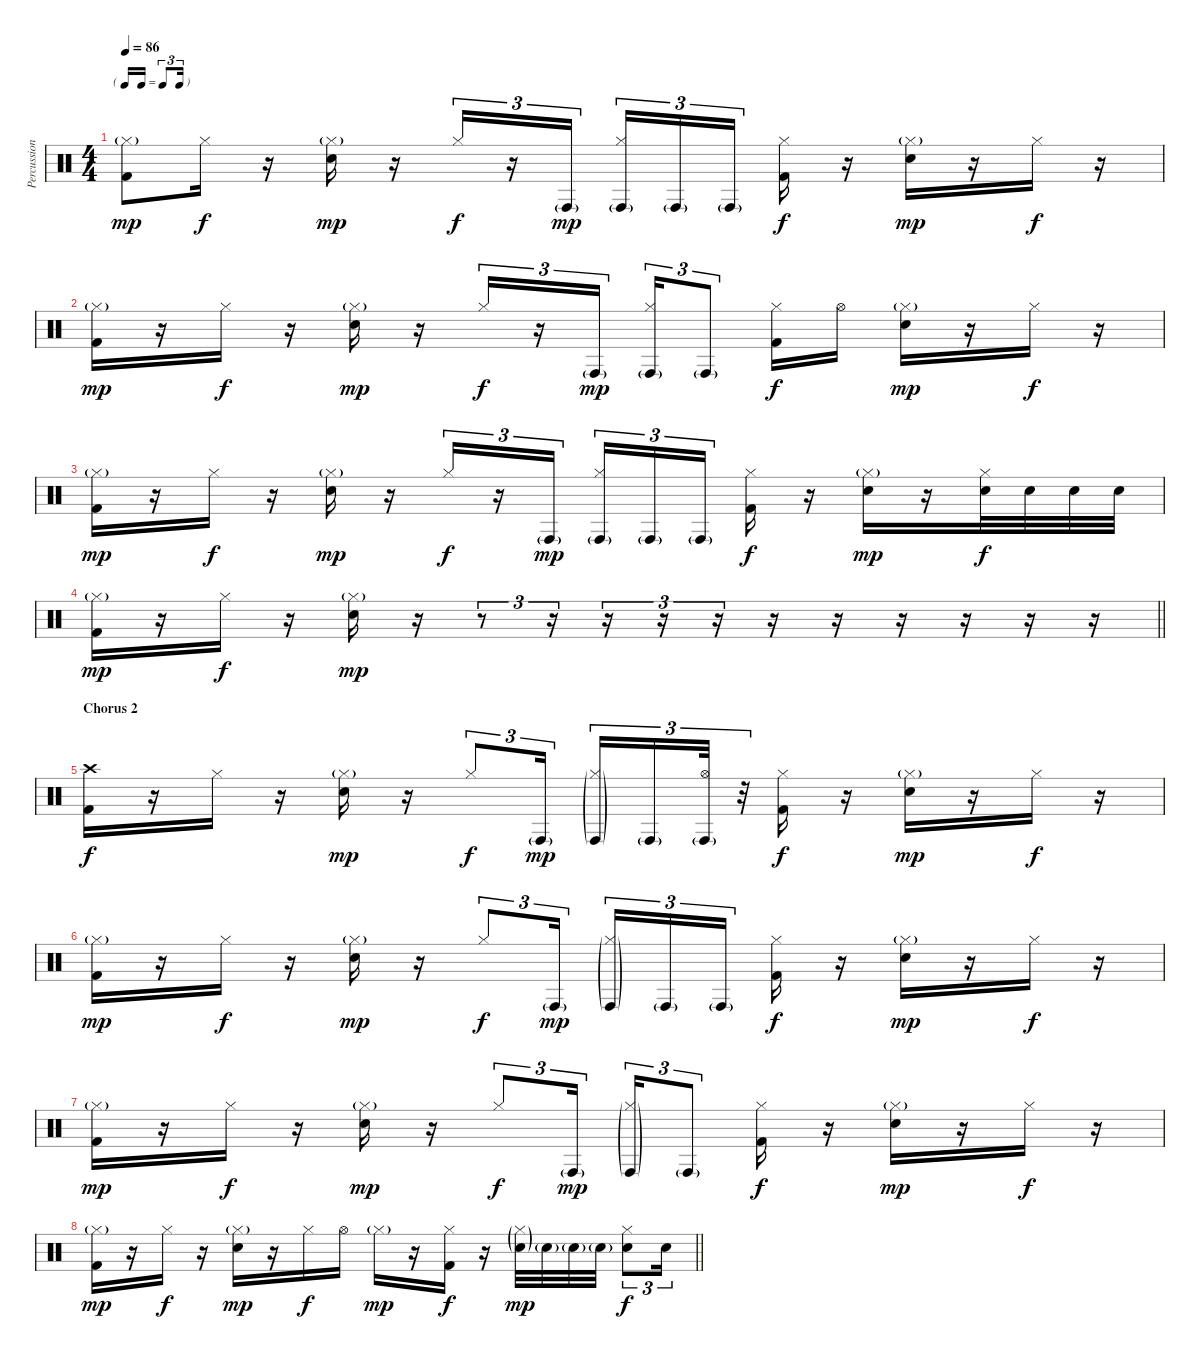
\track ("Percussion" "Percussion") {instrument percussion}
\staff {score}
\articulation defaults
\ts (4 4)
\tf triplet16th
\tempo 86
\clef neutral
\ks c
("Hi-Hat (closed)"{g} "Kick (hit) 2").8{dy mp} "Hi-Hat (closed)".16{dy f} r.16 ("Hi-Hat (closed)"{g} "Electric Snare (hit)").16{dy mp} r.16 "Hi-Hat (closed)".16{tu (3 2) dy f} r.16{tu (3 2)} "Conga high (hit)"{g}.16{tu (3 2) dy mp} ("Conga high (hit)"{g} "Hi-Hat (closed)").16{tu (3 2)} "Conga high (hit)"{g}.16{tu (3 2)} "Conga high (hit)"{g}.16{tu (3 2) beam splitsecondary} ("Hi-Hat (closed)" "Kick (hit) 2").16{dy f} r.16 ("Hi-Hat (closed)"{g} "Electric Snare (hit)").16{dy mp} r.16 "Hi-Hat (closed)".16{dy f} r.16 |
("Hi-Hat (closed)"{g} "Kick (hit) 2").16{dy mp} r.16 "Hi-Hat (closed)".16{dy f} r.16 ("Hi-Hat (closed)"{g} "Electric Snare (hit)").16{dy mp} r.16 "Hi-Hat (closed)".16{tu (3 2) dy f} r.16{tu (3 2)} "Conga high (hit)"{g}.16{tu (3 2) dy mp} ("Conga high (hit)"{g} "Hi-Hat (closed)").16{tu (3 2)} "Conga high (hit)"{g}.8{tu (3 2)} ("Hi-Hat (closed)" "Kick (hit) 2").16{dy f} "Hi-Hat (open)".16 ("Hi-Hat (closed)"{g} "Electric Snare (hit)").16{dy mp} r.16 "Hi-Hat (closed)".16{dy f} r.16 |
("Hi-Hat (closed)"{g} "Kick (hit) 2").16{dy mp} r.16 "Hi-Hat (closed)".16{dy f} r.16 ("Hi-Hat (closed)"{g} "Electric Snare (hit)").16{dy mp} r.16 "Hi-Hat (closed)".16{tu (3 2) dy f} r.16{tu (3 2)} "Conga high (hit)"{g}.16{tu (3 2) dy mp} ("Conga high (hit)"{g} "Hi-Hat (closed)").16{tu (3 2)} "Conga high (hit)"{g}.16{tu (3 2)} "Conga high (hit)"{g}.16{tu (3 2) beam splitsecondary} ("Hi-Hat (closed)" "Kick (hit) 2").16{dy f} r.16 ("Hi-Hat (closed)"{g} "Electric Snare (hit)").16{dy mp} r.16 ("Hi-Hat (closed)" "Electric Snare (hit)").32{dy f} "Electric Snare (hit)".32 "Electric Snare (hit)".32 "Electric Snare (hit)".32 |
\barLineRight lightlight
("Hi-Hat (closed)"{g} "Kick (hit) 2").16{dy mp} r.16 "Hi-Hat (closed)".16{dy f} r.16 ("Hi-Hat (closed)"{g} "Electric Snare (hit)").16{dy mp} r.16 r.8{tu (3 2)} r.16{tu (3 2)} r.16{tu (3 2)} r.16{tu (3 2)} r.16{tu (3 2)} r.16 r.16 r.16 r.16 r.16 r.16 |
\section ("" "Chorus 2")
("Crash high (hit)" "Kick (hit) 2").16{dy f} r.16 "Hi-Hat (closed)".16 r.16 ("Hi-Hat (closed)"{g} "Electric Snare (hit)").16{dy mp} r.16 "Hi-Hat (closed)".8{tu (3 2) dy f} "Conga high (hit)"{g}.16{tu (3 2) dy mp} ("Conga high (hit)"{g} "Hi-Hat (closed)"{g}).16{tu (3 2)} "Conga high (hit)"{g}.16{tu (3 2)} ("Conga high (hit)"{g} "Hi-Hat (open)").32{tu (3 2)} r.32{tu (3 2)} ("Hi-Hat (closed)" "Kick (hit) 2").16{dy f} r.16 ("Hi-Hat (closed)"{g} "Electric Snare (hit)").16{dy mp} r.16 "Hi-Hat (closed)".16{dy f} r.16 |
("Hi-Hat (closed)"{g} "Kick (hit) 2").16{dy mp} r.16 "Hi-Hat (closed)".16{dy f} r.16 ("Hi-Hat (closed)"{g} "Electric Snare (hit)").16{dy mp} r.16 "Hi-Hat (closed)".8{tu (3 2) dy f} "Conga high (hit)"{g}.16{tu (3 2) dy mp} ("Conga high (hit)"{g} "Hi-Hat (closed)"{g}).16{tu (3 2)} "Conga high (hit)"{g}.16{tu (3 2)} "Conga high (hit)"{g}.16{tu (3 2) beam splitsecondary} ("Hi-Hat (closed)" "Kick (hit) 2").16{dy f} r.16 ("Hi-Hat (closed)"{g} "Electric Snare (hit)").16{dy mp} r.16 "Hi-Hat (closed)".16{dy f} r.16 |
("Hi-Hat (closed)"{g} "Kick (hit) 2").16{dy mp} r.16 "Hi-Hat (closed)".16{dy f} r.16 ("Hi-Hat (closed)"{g} "Electric Snare (hit)").16{dy mp} r.16 "Hi-Hat (closed)".8{tu (3 2) dy f} "Conga high (hit)"{g}.16{tu (3 2) dy mp} ("Conga high (hit)"{g} "Hi-Hat (closed)"{g}).16{tu (3 2)} "Conga high (hit)"{g}.8{tu (3 2)} ("Hi-Hat (closed)" "Kick (hit) 2").16{dy f} r.16 ("Hi-Hat (closed)"{g} "Electric Snare (hit)").16{dy mp} r.16 "Hi-Hat (closed)".16{dy f} r.16 |
\barLineRight lightlight
("Hi-Hat (closed)"{g} "Kick (hit) 2").16{dy mp} r.16 "Hi-Hat (closed)".16{dy f} r.16 ("Hi-Hat (closed)"{g} "Electric Snare (hit)").16{dy mp} r.16 "Hi-Hat (closed)".16{dy f} "Hi-Hat (open)".16 "Hi-Hat (closed)"{g}.16{dy mp} r.16 ("Hi-Hat (closed)" "Kick (hit) 2").16{dy f} r.16 ("Hi-Hat (closed)"{g} "Electric Snare (hit)"{g}).32{dy mp} "Electric Snare (hit)"{g}.32 "Electric Snare (hit)"{g}.32 "Electric Snare (hit)"{g}.32 ("Hi-Hat (closed)" "Electric Snare (hit)").8{tu (3 2) dy f} "Electric Snare (hit)".16{tu (3 2)}
